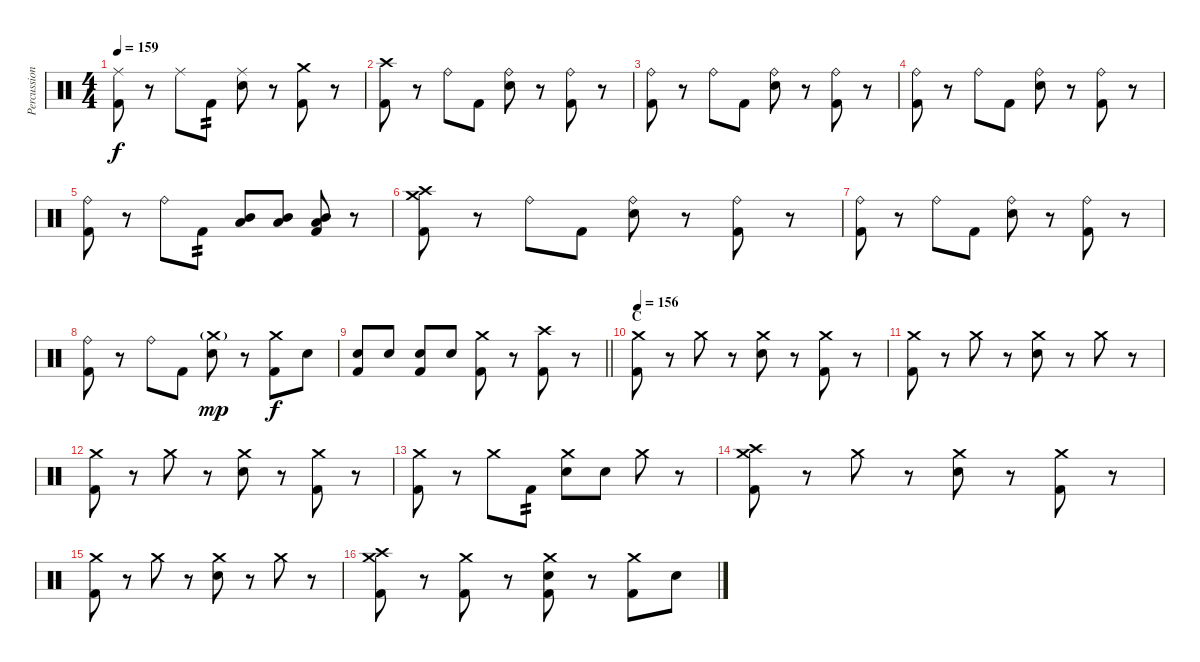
\track ("Percussion" "Percussion") {instrument percussion}
\staff {score}
\articulation defaults
\ts (4 4)
\tempo 159
\clef neutral
\ks c
("Ride (middle)" "Kick (hit) 2").8{dy f} r.8 "Ride (middle)".8 "Kick (hit) 2".8{tp 2} ("Ride (middle)" "Snare (hit) 2").8 r.8 ("Crash medium (hit)" "Kick (hit) 2").8 r.8 |
("Crash high (hit)" "Kick (hit) 2").8 r.8 "Ride (bell)".8 "Kick (hit) 2".8 ("Ride (bell)" "Snare (hit) 2").8 r.8 ("Ride (bell)" "Kick (hit) 2").8 r.8 |
("Ride (bell)" "Kick (hit) 2").8 r.8 "Ride (bell)".8 "Kick (hit) 2".8 ("Ride (bell)" "Snare (hit) 2").8 r.8 ("Ride (bell)" "Kick (hit) 2").8 r.8 |
("Ride (bell)" "Kick (hit) 2").8 r.8 "Ride (bell)".8 "Kick (hit) 2".8 ("Ride (bell)" "Snare (hit) 2").8 r.8 ("Ride (bell)" "Kick (hit) 2").8 r.8 |
("Ride (bell)" "Kick (hit) 2").8 r.8 "Ride (bell)".8 "Kick (hit) 2".8{tp 2} ("Mid Tom (hit)" "Low Tom (hit)").8 ("Mid Tom (hit)" "Low Tom (hit)").8 ("Mid Tom (hit)" "Low Tom (hit)" "Kick (hit) 2").8 r.8 |
("Crash high (hit)" "Crash medium (hit)" "Kick (hit) 2").8 r.8 "Ride (bell)".8 "Kick (hit) 2".8 ("Ride (bell)" "Snare (hit) 2").8 r.8 ("Ride (bell)" "Kick (hit) 2").8 r.8 |
("Ride (bell)" "Kick (hit) 2").8 r.8 "Ride (bell)".8 "Kick (hit) 2".8 ("Ride (bell)" "Snare (hit) 2").8 r.8 ("Ride (bell)" "Kick (hit) 2").8 r.8 |
("Ride (bell)" "Kick (hit) 2").8 r.8 "Ride (bell)".8 "Kick (hit) 2".8 ("Crash medium (hit)"{g} "Snare (hit) 2").8{dy mp} r.8 ("Crash medium (hit)" "Kick (hit) 2").8{dy f} "Snare (hit) 2".8 |
\barLineRight lightlight
("Snare (hit) 2" "Kick (hit) 2").8 "Snare (hit) 2".8 ("Snare (hit) 2" "Kick (hit) 2").8 "Snare (hit) 2".8 ("Crash medium (hit)" "Kick (hit) 2").8 r.8 ("Crash high (hit)" "Kick (hit) 2").8 r.8 |
\section ("" "C")
\tempo 156
("Crash medium (hit)" "Kick (hit) 2").8 r.8 "Crash medium (hit)".8 r.8 ("Crash medium (hit)" "Snare (hit) 2").8 r.8 ("Crash medium (hit)" "Kick (hit) 2").8 r.8 |
("Crash medium (hit)" "Kick (hit) 2").8 r.8 "Crash medium (hit)".8 r.8 ("Crash medium (hit)" "Snare (hit) 2").8 r.8 "Crash medium (hit)".8 r.8 |
("Crash medium (hit)" "Kick (hit) 2").8 r.8 "Crash medium (hit)".8 r.8 ("Crash medium (hit)" "Snare (hit) 2").8 r.8 ("Crash medium (hit)" "Kick (hit) 2").8 r.8 |
("Crash medium (hit)" "Kick (hit) 2").8 r.8 "Crash medium (hit)".8 "Kick (hit) 2".8{tp 2} ("Crash medium (hit)" "Snare (hit) 2").8 "Snare (hit) 2".8 "Crash medium (hit)".8 r.8 |
("Crash high (hit)" "Crash medium (hit)" "Kick (hit) 2").8 r.8 "Crash medium (hit)".8 r.8 ("Crash medium (hit)" "Snare (hit) 2").8 r.8 ("Crash medium (hit)" "Kick (hit) 2").8 r.8 |
("Crash medium (hit)" "Kick (hit) 2").8 r.8 "Crash medium (hit)".8 r.8 ("Crash medium (hit)" "Snare (hit) 2").8 r.8 "Crash medium (hit)".8 r.8 |
("Crash medium (hit)" "Crash high (hit)" "Kick (hit) 2").8 r.8 ("Crash medium (hit)" "Kick (hit) 2").8 r.8 ("Crash medium (hit)" "Snare (hit) 2" "Kick (hit) 2").8 r.8 ("Crash medium (hit)" "Kick (hit) 2").8 "Snare (hit) 2".8
